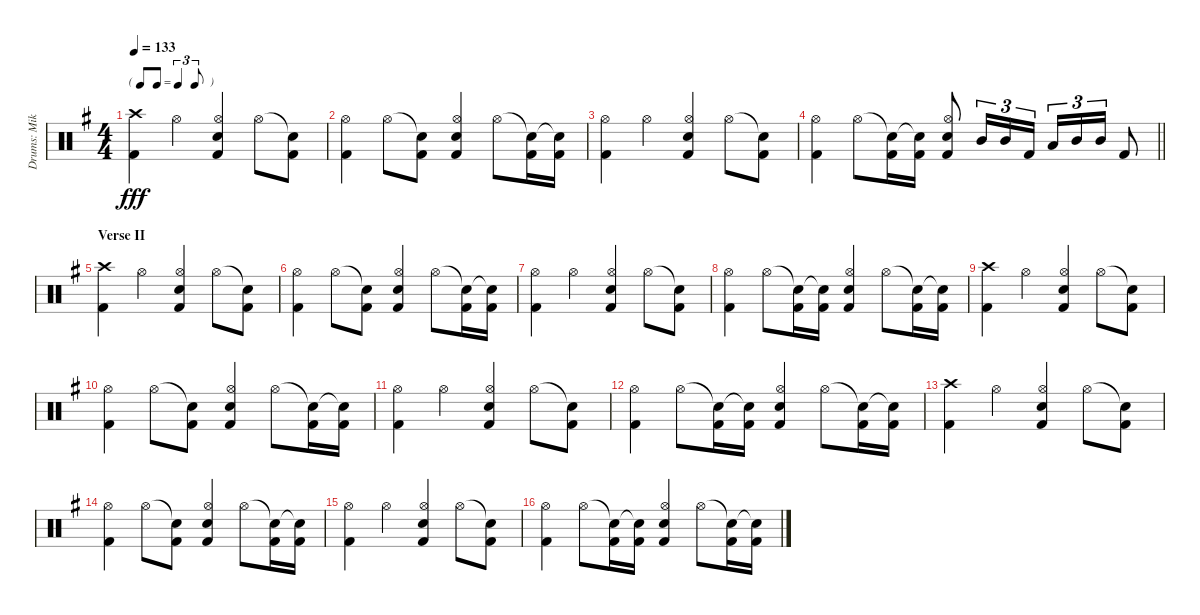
\track ("Drums: Mike" "Drums: Mik") {instrument percussion}
\staff {score}
\articulation defaults
\ts (4 4)
\tf triplet8th
\tempo 133
\clef neutral
\ks g
("Crash high (hit)" "Kick (hit) 2").4{dy fff} "Hi-Hat (open)".4 ("Hi-Hat (open)" "Electric Snare (hit)" "Kick (hit) 2").4 "Hi-Hat (open)".8 ("Snare (hit)"{t} "Kick (hit) 2").8 |
("Hi-Hat (open)" "Kick (hit) 2").4 "Hi-Hat (open)".8 ("Snare (hit)"{t} "Kick (hit) 2").8 ("Hi-Hat (open)" "Electric Snare (hit)" "Kick (hit) 2").4 "Hi-Hat (open)".8 ("Snare (hit)"{t} "Kick (hit) 2").16 ("Snare (hit)"{t} "Kick (hit) 2").16 |
("Hi-Hat (open)" "Kick (hit) 2").4 "Hi-Hat (open)".4 ("Hi-Hat (open)" "Electric Snare (hit)" "Kick (hit) 2").4 "Hi-Hat (open)".8 ("Snare (hit)"{t} "Kick (hit) 2").8 |
\barLineRight lightlight
("Hi-Hat (open)" "Kick (hit) 2").4 "Hi-Hat (open)".8 ("Snare (hit)"{t} "Kick (hit) 2").16 ("Snare (hit)"{t} "Kick (hit) 2").16 ("Hi-Hat (open)" "Electric Snare (hit)" "Kick (hit) 2").8 "Mid Tom (hit)".16{tu (3 2)} "Mid Tom (hit)".16{tu (3 2)} "Kick (hit) 2".16{tu (3 2)} "Low Tom (hit)".16{tu (3 2)} "Mid Tom (hit)".16{tu (3 2)} "Mid Tom (hit)".16{tu (3 2)} "Kick (hit) 2".8 |
\section ("" "Verse II")
("Crash high (hit)" "Kick (hit) 2").4 "Hi-Hat (open)".4 ("Hi-Hat (open)" "Electric Snare (hit)" "Kick (hit) 2").4 "Hi-Hat (open)".8 ("Snare (hit)"{t} "Kick (hit) 2").8 |
("Hi-Hat (open)" "Kick (hit) 2").4 "Hi-Hat (open)".8 ("Snare (hit)"{t} "Kick (hit) 2").8 ("Hi-Hat (open)" "Electric Snare (hit)" "Kick (hit) 2").4 "Hi-Hat (open)".8 ("Snare (hit)"{t} "Kick (hit) 2").16 ("Snare (hit)"{t} "Kick (hit) 2").16 |
("Hi-Hat (open)" "Kick (hit) 2").4 "Hi-Hat (open)".4 ("Hi-Hat (open)" "Electric Snare (hit)" "Kick (hit) 2").4 "Hi-Hat (open)".8 ("Snare (hit)"{t} "Kick (hit) 2").8 |
("Hi-Hat (open)" "Kick (hit) 2").4 "Hi-Hat (open)".8 ("Snare (hit)"{t} "Kick (hit) 2").16 ("Snare (hit)"{t} "Kick (hit) 2").16 ("Hi-Hat (open)" "Electric Snare (hit)" "Kick (hit) 2").4 "Hi-Hat (open)".8 ("Snare (hit)"{t} "Kick (hit) 2").16 ("Snare (hit)"{t} "Kick (hit) 2").16 |
("Crash high (hit)" "Kick (hit) 2").4 "Hi-Hat (open)".4 ("Hi-Hat (open)" "Electric Snare (hit)" "Kick (hit) 2").4 "Hi-Hat (open)".8 ("Snare (hit)"{t} "Kick (hit) 2").8 |
("Hi-Hat (open)" "Kick (hit) 2").4 "Hi-Hat (open)".8 ("Snare (hit)"{t} "Kick (hit) 2").8 ("Hi-Hat (open)" "Electric Snare (hit)" "Kick (hit) 2").4 "Hi-Hat (open)".8 ("Snare (hit)"{t} "Kick (hit) 2").16 ("Snare (hit)"{t} "Kick (hit) 2").16 |
("Hi-Hat (open)" "Kick (hit) 2").4 "Hi-Hat (open)".4 ("Hi-Hat (open)" "Electric Snare (hit)" "Kick (hit) 2").4 "Hi-Hat (open)".8 ("Snare (hit)"{t} "Kick (hit) 2").8 |
("Hi-Hat (open)" "Kick (hit) 2").4 "Hi-Hat (open)".8 ("Snare (hit)"{t} "Kick (hit) 2").16 ("Snare (hit)"{t} "Kick (hit) 2").16 ("Hi-Hat (open)" "Electric Snare (hit)" "Kick (hit) 2").4 "Hi-Hat (open)".8 ("Snare (hit)"{t} "Kick (hit) 2").16 ("Snare (hit)"{t} "Kick (hit) 2").16 |
("Crash high (hit)" "Kick (hit) 2").4 "Hi-Hat (open)".4 ("Hi-Hat (open)" "Electric Snare (hit)" "Kick (hit) 2").4 "Hi-Hat (open)".8 ("Snare (hit)"{t} "Kick (hit) 2").8 |
("Hi-Hat (open)" "Kick (hit) 2").4 "Hi-Hat (open)".8 ("Snare (hit)"{t} "Kick (hit) 2").8 ("Hi-Hat (open)" "Electric Snare (hit)" "Kick (hit) 2").4 "Hi-Hat (open)".8 ("Snare (hit)"{t} "Kick (hit) 2").16 ("Snare (hit)"{t} "Kick (hit) 2").16 |
("Hi-Hat (open)" "Kick (hit) 2").4 "Hi-Hat (open)".4 ("Hi-Hat (open)" "Electric Snare (hit)" "Kick (hit) 2").4 "Hi-Hat (open)".8 ("Snare (hit)"{t} "Kick (hit) 2").8 |
("Hi-Hat (open)" "Kick (hit) 2").4 "Hi-Hat (open)".8 ("Snare (hit)"{t} "Kick (hit) 2").16 ("Snare (hit)"{t} "Kick (hit) 2").16 ("Hi-Hat (open)" "Electric Snare (hit)" "Kick (hit) 2").4 "Hi-Hat (open)".8 ("Snare (hit)"{t} "Kick (hit) 2").16 ("Snare (hit)"{t} "Kick (hit) 2").16
